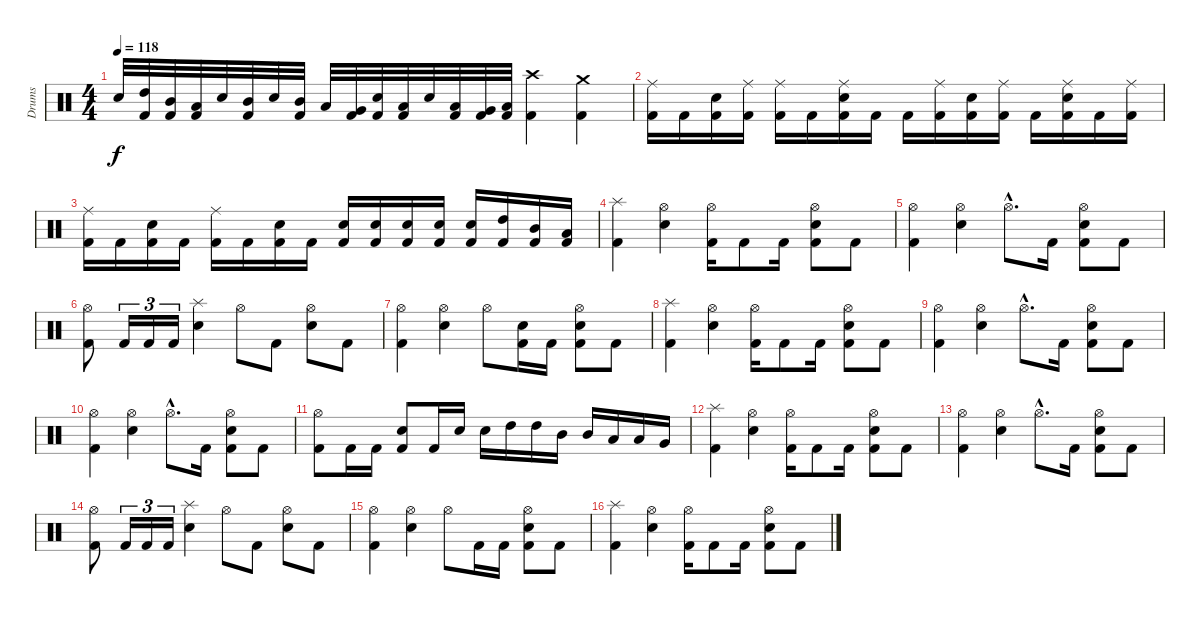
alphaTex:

\track ("Drums" "Drums") {instrument percussion}
\staff {score}
\articulation defaults
\ts (4 4)
\tempo 118
\clef neutral
\ks c "Snare (hit) 2".32{dy f}
("High Tom (hit)" "Kick (hit) 2").32 ("Mid Tom (hit)" "Kick (hit) 2").32 ("Low Tom (hit)" "Kick (hit) 2").32 "Snare (hit) 2".32 ("Mid Tom (hit)" "Kick (hit) 2").32 "Snare (hit) 2".32 ("Mid Tom (hit)" "Kick (hit) 2").32 "Low Tom (hit)".32 ("Very Low Tom (hit)" "Kick (hit) 2").32 ("Snare (hit) 2" "Kick (hit) 2").32 ("Low Tom (hit)" "Kick (hit) 2").32 "Snare (hit) 2".32 ("Low Tom (hit)" "Kick (hit) 2").32 ("Very Low Tom (hit)" "Kick (hit) 2").32 ("Low Floor Tom (hit)" "Kick (hit) 2").32 ("Crash high (hit)" "Kick (hit) 2").4 ("Crash medium (hit)" "Kick (hit) 2").4 |
("Ride (middle)" "Kick (hit) 2").16 "Kick (hit) 2".16 ("Snare (hit) 2" "Kick (hit) 2").16 ("Ride (middle)" "Kick (hit) 2").16 ("Ride (middle)" "Kick (hit) 2").16 "Kick (hit) 2".16 ("Ride (middle)" "Snare (hit) 2" "Kick (hit) 2").16 "Kick (hit) 2".16 "Kick (hit) 2".16 ("Ride (middle)" "Kick (hit) 2").16 ("Snare (hit) 2" "Kick (hit) 2").16 ("Ride (middle)" "Kick (hit) 2").16 "Kick (hit) 2".16 ("Ride (middle)" "Snare (hit) 2" "Kick (hit) 2").16 "Kick (hit) 2".16 ("Ride (middle)" "Kick (hit) 2").16 |
("Ride (middle)" "Kick (hit) 2").16 "Kick (hit) 2".16 ("Snare (hit) 2" "Kick (hit) 2").16 "Kick (hit) 2".16 ("Ride (middle)" "Kick (hit) 2").16 "Kick (hit) 2".16 ("Snare (hit) 2" "Kick (hit) 2").16 "Kick (hit) 2".16 ("Snare (hit) 2" "Kick (hit) 2").16 ("Snare (hit) 2" "Kick (hit) 2").16 ("Snare (hit) 2" "Kick (hit) 2").16 ("Snare (hit) 2" "Kick (hit) 2").16 ("Snare (hit) 2" "Kick (hit) 2").16 ("High Tom (hit)" "Kick (hit) 2").16 ("Mid Tom (hit)" "Kick (hit) 2").16 ("Low Tom (hit)" "Kick (hit) 2").16 |
("Splash (hit)" "Kick (hit) 2").4 ("Hi-Hat (open)" "Snare (hit) 2").4 ("Hi-Hat (open)" "Kick (hit) 2").16 "Kick (hit) 2".8 "Kick (hit) 2".16 ("Hi-Hat (open)" "Snare (hit) 2" "Kick (hit) 2").8 "Kick (hit) 2".8 |
("Hi-Hat (open)" "Kick (hit) 2").4 ("Hi-Hat (open)" "Snare (hit) 2").4 "Hi-Hat (open)"{hac}.8{d} "Kick (hit) 2".16 ("Hi-Hat (open)" "Snare (hit) 2" "Kick (hit) 2").8 "Kick (hit) 2".8 |
("Hi-Hat (open)" "Kick (hit) 2").8 "Kick (hit) 2".16{tu (3 2)} "Kick (hit) 2".16{tu (3 2)} "Kick (hit) 2".16{tu (3 2)} ("Splash (hit)" "Snare (hit) 2").4 "Hi-Hat (open)".8 "Kick (hit) 2".8 ("Hi-Hat (open)" "Snare (hit) 2").8 "Kick (hit) 2".8 |
("Hi-Hat (open)" "Kick (hit) 2").4 ("Hi-Hat (open)" "Snare (hit) 2").4 "Hi-Hat (open)".8 ("Snare (hit) 2" "Kick (hit) 2").16 "Kick (hit) 2".16 ("Hi-Hat (open)" "Snare (hit) 2" "Kick (hit) 2").8 "Kick (hit) 2".8 |
("Splash (hit)" "Kick (hit) 2").4 ("Hi-Hat (open)" "Snare (hit) 2").4 ("Hi-Hat (open)" "Kick (hit) 2").16 "Kick (hit) 2".8 "Kick (hit) 2".16 ("Hi-Hat (open)" "Snare (hit) 2" "Kick (hit) 2").8 "Kick (hit) 2".8 |
("Hi-Hat (open)" "Kick (hit) 2").4 ("Hi-Hat (open)" "Snare (hit) 2").4 "Hi-Hat (open)"{hac}.8{d} "Kick (hit) 2".16 ("Hi-Hat (open)" "Snare (hit) 2" "Kick (hit) 2").8 "Kick (hit) 2".8 |
("Hi-Hat (open)" "Kick (hit) 2").4 ("Hi-Hat (open)" "Snare (hit) 2").4 "Hi-Hat (open)"{hac}.8{d} "Kick (hit) 2".16 ("Hi-Hat (open)" "Snare (hit) 2" "Kick (hit) 2").8 "Kick (hit) 2".8 |
("Hi-Hat (open)" "Kick (hit) 2").8 "Kick (hit) 2".16 "Kick (hit) 2".16 ("Snare (hit) 2" "Kick (hit) 2").8 "Kick (hit) 2".16 "Snare (hit) 2".16 "Snare (hit) 2".16 "High Tom (hit)".16 "High Tom (hit)".16 "Mid Tom (hit)".16 "Mid Tom (hit)".16 "Low Tom (hit)".16 "Low Tom (hit)".16 "Very Low Tom (hit)".16 |
("Splash (hit)" "Kick (hit) 2").4 ("Hi-Hat (open)" "Snare (hit) 2").4 ("Hi-Hat (open)" "Kick (hit) 2").16 "Kick (hit) 2".8 "Kick (hit) 2".16 ("Hi-Hat (open)" "Snare (hit) 2" "Kick (hit) 2").8 "Kick (hit) 2".8 |
("Hi-Hat (open)" "Kick (hit) 2").4 ("Hi-Hat (open)" "Snare (hit) 2").4 "Hi-Hat (open)"{hac}.8{d} "Kick (hit) 2".16 ("Hi-Hat (open)" "Snare (hit) 2" "Kick (hit) 2").8 "Kick (hit) 2".8 |
("Hi-Hat (open)" "Kick (hit) 2").8 "Kick (hit) 2".16{tu (3 2)} "Kick (hit) 2".16{tu (3 2)} "Kick (hit) 2".16{tu (3 2)} ("Splash (hit)" "Snare (hit) 2").4 "Hi-Hat (open)".8 "Kick (hit) 2".8 ("Hi-Hat (open)" "Snare (hit) 2").8 "Kick (hit) 2".8 |
("Hi-Hat (open)" "Kick (hit) 2").4 ("Hi-Hat (open)" "Snare (hit) 2").4 "Hi-Hat (open)".8 "Kick (hit) 2".16 "Kick (hit) 2".16 ("Hi-Hat (open)" "Snare (hit) 2" "Kick (hit) 2").8 "Kick (hit) 2".8 |
("Splash (hit)" "Kick (hit) 2").4 ("Hi-Hat (open)" "Snare (hit) 2").4 ("Hi-Hat (open)" "Kick (hit) 2").16 "Kick (hit) 2".8 "Kick (hit) 2".16 ("Hi-Hat (open)" "Snare (hit) 2" "Kick (hit) 2").8 "Kick (hit) 2".8
